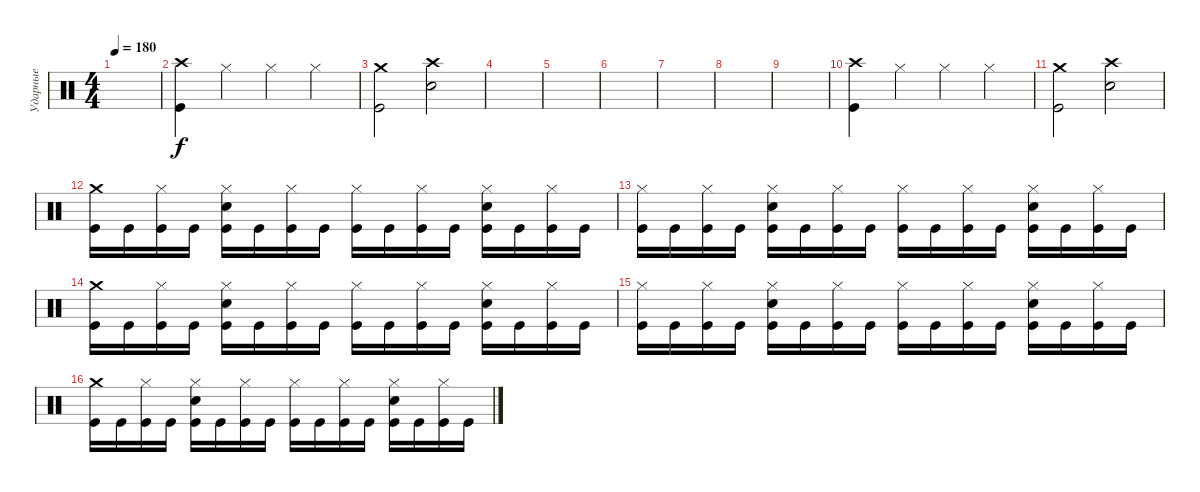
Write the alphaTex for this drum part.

\track ("Ударные" "Ударные") {instrument percussion}
\staff {score}
\articulation defaults
\ts (4 4)
\tempo 180
\clef neutral
\ks c
|
("Crash high (hit)" "Kick (hit)").4 "Hi-Hat (closed)".4 "Hi-Hat (closed)".4 "Hi-Hat (closed)".4 |
("Crash medium (hit)" "Kick (hit)").2 ("Crash high (hit)" "Electric Snare (hit)").2 |
|
|
|
|
|
|
("Crash high (hit)" "Kick (hit)").4 "Hi-Hat (closed)".4 "Hi-Hat (closed)".4 "Hi-Hat (closed)".4 |
("Crash medium (hit)" "Kick (hit)").2 ("Crash high (hit)" "Electric Snare (hit)").2 |
("Crash medium (hit)" "Kick (hit)").16 "Kick (hit)".16 ("Hi-Hat (closed)" "Kick (hit)").16 "Kick (hit)".16 ("Hi-Hat (closed)" "Electric Snare (hit)" "Kick (hit)").16 "Kick (hit)".16 ("Hi-Hat (closed)" "Kick (hit)").16 "Kick (hit)".16 ("Hi-Hat (closed)" "Kick (hit)").16 "Kick (hit)".16 ("Hi-Hat (closed)" "Kick (hit)").16 "Kick (hit)".16 ("Hi-Hat (closed)" "Electric Snare (hit)" "Kick (hit)").16 "Kick (hit)".16 ("Hi-Hat (closed)" "Kick (hit)").16 "Kick (hit)".16 |
("Hi-Hat (closed)" "Kick (hit)").16 "Kick (hit)".16 ("Hi-Hat (closed)" "Kick (hit)").16 "Kick (hit)".16 ("Hi-Hat (closed)" "Electric Snare (hit)" "Kick (hit)").16 "Kick (hit)".16 ("Hi-Hat (closed)" "Kick (hit)").16 "Kick (hit)".16 ("Hi-Hat (closed)" "Kick (hit)").16 "Kick (hit)".16 ("Hi-Hat (closed)" "Kick (hit)").16 "Kick (hit)".16 ("Hi-Hat (closed)" "Electric Snare (hit)" "Kick (hit)").16 "Kick (hit)".16 ("Hi-Hat (closed)" "Kick (hit)").16 "Kick (hit)".16 |
("Crash medium (hit)" "Kick (hit)").16 "Kick (hit)".16 ("Hi-Hat (closed)" "Kick (hit)").16 "Kick (hit)".16 ("Hi-Hat (closed)" "Electric Snare (hit)" "Kick (hit)").16 "Kick (hit)".16 ("Hi-Hat (closed)" "Kick (hit)").16 "Kick (hit)".16 ("Hi-Hat (closed)" "Kick (hit)").16 "Kick (hit)".16 ("Hi-Hat (closed)" "Kick (hit)").16 "Kick (hit)".16 ("Hi-Hat (closed)" "Electric Snare (hit)" "Kick (hit)").16 "Kick (hit)".16 ("Hi-Hat (closed)" "Kick (hit)").16 "Kick (hit)".16 |
("Hi-Hat (closed)" "Kick (hit)").16 "Kick (hit)".16 ("Hi-Hat (closed)" "Kick (hit)").16 "Kick (hit)".16 ("Hi-Hat (closed)" "Electric Snare (hit)" "Kick (hit)").16 "Kick (hit)".16 ("Hi-Hat (closed)" "Kick (hit)").16 "Kick (hit)".16 ("Hi-Hat (closed)" "Kick (hit)").16 "Kick (hit)".16 ("Hi-Hat (closed)" "Kick (hit)").16 "Kick (hit)".16 ("Hi-Hat (closed)" "Electric Snare (hit)" "Kick (hit)").16 "Kick (hit)".16 ("Hi-Hat (closed)" "Kick (hit)").16 "Kick (hit)".16 |
("Crash medium (hit)" "Kick (hit)").16 "Kick (hit)".16 ("Hi-Hat (closed)" "Kick (hit)").16 "Kick (hit)".16 ("Hi-Hat (closed)" "Electric Snare (hit)" "Kick (hit)").16 "Kick (hit)".16 ("Hi-Hat (closed)" "Kick (hit)").16 "Kick (hit)".16 ("Hi-Hat (closed)" "Kick (hit)").16 "Kick (hit)".16 ("Hi-Hat (closed)" "Kick (hit)").16 "Kick (hit)".16 ("Hi-Hat (closed)" "Electric Snare (hit)" "Kick (hit)").16 "Kick (hit)".16 ("Hi-Hat (closed)" "Kick (hit)").16 "Kick (hit)".16
